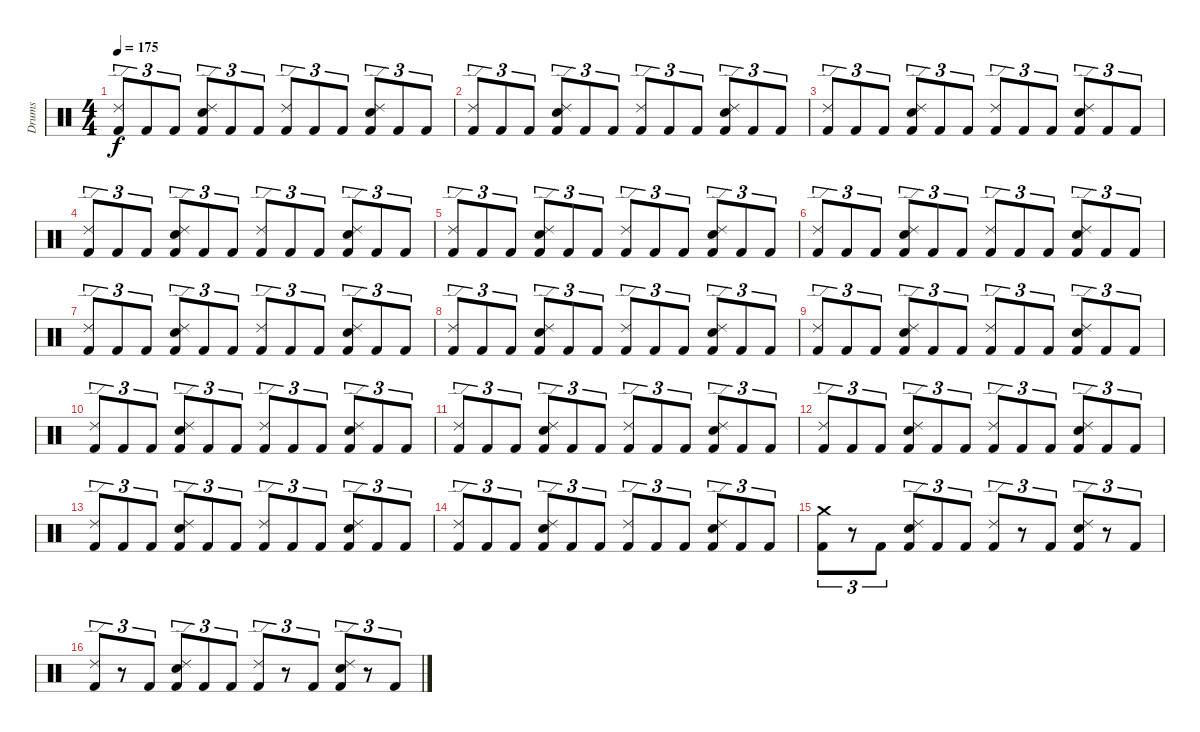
\track ("Drums" "Drums") {instrument percussion}
\staff {score}
\articulation defaults
\ts (4 4)
\tempo 175
\clef neutral
\ks c
("Ride (edge) 2" "Kick (hit) 2").8{tu (3 2) dy f} "Kick (hit) 2".8{tu (3 2)} "Kick (hit) 2".8{tu (3 2)} ("Electric Snare (hit)" "Ride (edge) 2" "Kick (hit) 2").8{tu (3 2)} "Kick (hit) 2".8{tu (3 2)} "Kick (hit) 2".8{tu (3 2)} ("Ride (edge) 2" "Kick (hit) 2").8{tu (3 2)} "Kick (hit) 2".8{tu (3 2)} "Kick (hit) 2".8{tu (3 2)} ("Electric Snare (hit)" "Ride (edge) 2" "Kick (hit) 2").8{tu (3 2)} "Kick (hit) 2".8{tu (3 2)} "Kick (hit) 2".8{tu (3 2)} |
("Ride (edge) 2" "Kick (hit) 2").8{tu (3 2)} "Kick (hit) 2".8{tu (3 2)} "Kick (hit) 2".8{tu (3 2)} ("Electric Snare (hit)" "Ride (edge) 2" "Kick (hit) 2").8{tu (3 2)} "Kick (hit) 2".8{tu (3 2)} "Kick (hit) 2".8{tu (3 2)} ("Ride (edge) 2" "Kick (hit) 2").8{tu (3 2)} "Kick (hit) 2".8{tu (3 2)} "Kick (hit) 2".8{tu (3 2)} ("Electric Snare (hit)" "Ride (edge) 2" "Kick (hit) 2").8{tu (3 2)} "Kick (hit) 2".8{tu (3 2)} "Kick (hit) 2".8{tu (3 2)} |
("Ride (edge) 2" "Kick (hit) 2").8{tu (3 2)} "Kick (hit) 2".8{tu (3 2)} "Kick (hit) 2".8{tu (3 2)} ("Electric Snare (hit)" "Ride (edge) 2" "Kick (hit) 2").8{tu (3 2)} "Kick (hit) 2".8{tu (3 2)} "Kick (hit) 2".8{tu (3 2)} ("Ride (edge) 2" "Kick (hit) 2").8{tu (3 2)} "Kick (hit) 2".8{tu (3 2)} "Kick (hit) 2".8{tu (3 2)} ("Electric Snare (hit)" "Ride (edge) 2" "Kick (hit) 2").8{tu (3 2)} "Kick (hit) 2".8{tu (3 2)} "Kick (hit) 2".8{tu (3 2)} |
("Ride (edge) 2" "Kick (hit) 2").8{tu (3 2)} "Kick (hit) 2".8{tu (3 2)} "Kick (hit) 2".8{tu (3 2)} ("Electric Snare (hit)" "Ride (edge) 2" "Kick (hit) 2").8{tu (3 2)} "Kick (hit) 2".8{tu (3 2)} "Kick (hit) 2".8{tu (3 2)} ("Ride (edge) 2" "Kick (hit) 2").8{tu (3 2)} "Kick (hit) 2".8{tu (3 2)} "Kick (hit) 2".8{tu (3 2)} ("Electric Snare (hit)" "Ride (edge) 2" "Kick (hit) 2").8{tu (3 2)} "Kick (hit) 2".8{tu (3 2)} "Kick (hit) 2".8{tu (3 2)} |
("Ride (edge) 2" "Kick (hit) 2").8{tu (3 2)} "Kick (hit) 2".8{tu (3 2)} "Kick (hit) 2".8{tu (3 2)} ("Electric Snare (hit)" "Ride (edge) 2" "Kick (hit) 2").8{tu (3 2)} "Kick (hit) 2".8{tu (3 2)} "Kick (hit) 2".8{tu (3 2)} ("Ride (edge) 2" "Kick (hit) 2").8{tu (3 2)} "Kick (hit) 2".8{tu (3 2)} "Kick (hit) 2".8{tu (3 2)} ("Electric Snare (hit)" "Ride (edge) 2" "Kick (hit) 2").8{tu (3 2)} "Kick (hit) 2".8{tu (3 2)} "Kick (hit) 2".8{tu (3 2)} |
("Ride (edge) 2" "Kick (hit) 2").8{tu (3 2)} "Kick (hit) 2".8{tu (3 2)} "Kick (hit) 2".8{tu (3 2)} ("Electric Snare (hit)" "Ride (edge) 2" "Kick (hit) 2").8{tu (3 2)} "Kick (hit) 2".8{tu (3 2)} "Kick (hit) 2".8{tu (3 2)} ("Ride (edge) 2" "Kick (hit) 2").8{tu (3 2)} "Kick (hit) 2".8{tu (3 2)} "Kick (hit) 2".8{tu (3 2)} ("Electric Snare (hit)" "Ride (edge) 2" "Kick (hit) 2").8{tu (3 2)} "Kick (hit) 2".8{tu (3 2)} "Kick (hit) 2".8{tu (3 2)} |
("Ride (edge) 2" "Kick (hit) 2").8{tu (3 2)} "Kick (hit) 2".8{tu (3 2)} "Kick (hit) 2".8{tu (3 2)} ("Electric Snare (hit)" "Ride (edge) 2" "Kick (hit) 2").8{tu (3 2)} "Kick (hit) 2".8{tu (3 2)} "Kick (hit) 2".8{tu (3 2)} ("Ride (edge) 2" "Kick (hit) 2").8{tu (3 2)} "Kick (hit) 2".8{tu (3 2)} "Kick (hit) 2".8{tu (3 2)} ("Electric Snare (hit)" "Ride (edge) 2" "Kick (hit) 2").8{tu (3 2)} "Kick (hit) 2".8{tu (3 2)} "Kick (hit) 2".8{tu (3 2)} |
("Ride (edge) 2" "Kick (hit) 2").8{tu (3 2)} "Kick (hit) 2".8{tu (3 2)} "Kick (hit) 2".8{tu (3 2)} ("Electric Snare (hit)" "Ride (edge) 2" "Kick (hit) 2").8{tu (3 2)} "Kick (hit) 2".8{tu (3 2)} "Kick (hit) 2".8{tu (3 2)} ("Ride (edge) 2" "Kick (hit) 2").8{tu (3 2)} "Kick (hit) 2".8{tu (3 2)} "Kick (hit) 2".8{tu (3 2)} ("Electric Snare (hit)" "Ride (edge) 2" "Kick (hit) 2").8{tu (3 2)} "Kick (hit) 2".8{tu (3 2)} "Kick (hit) 2".8{tu (3 2)} |
("Ride (edge) 2" "Kick (hit) 2").8{tu (3 2)} "Kick (hit) 2".8{tu (3 2)} "Kick (hit) 2".8{tu (3 2)} ("Electric Snare (hit)" "Ride (edge) 2" "Kick (hit) 2").8{tu (3 2)} "Kick (hit) 2".8{tu (3 2)} "Kick (hit) 2".8{tu (3 2)} ("Ride (edge) 2" "Kick (hit) 2").8{tu (3 2)} "Kick (hit) 2".8{tu (3 2)} "Kick (hit) 2".8{tu (3 2)} ("Electric Snare (hit)" "Ride (edge) 2" "Kick (hit) 2").8{tu (3 2)} "Kick (hit) 2".8{tu (3 2)} "Kick (hit) 2".8{tu (3 2)} |
("Ride (edge) 2" "Kick (hit) 2").8{tu (3 2)} "Kick (hit) 2".8{tu (3 2)} "Kick (hit) 2".8{tu (3 2)} ("Electric Snare (hit)" "Ride (edge) 2" "Kick (hit) 2").8{tu (3 2)} "Kick (hit) 2".8{tu (3 2)} "Kick (hit) 2".8{tu (3 2)} ("Ride (edge) 2" "Kick (hit) 2").8{tu (3 2)} "Kick (hit) 2".8{tu (3 2)} "Kick (hit) 2".8{tu (3 2)} ("Electric Snare (hit)" "Ride (edge) 2" "Kick (hit) 2").8{tu (3 2)} "Kick (hit) 2".8{tu (3 2)} "Kick (hit) 2".8{tu (3 2)} |
("Ride (edge) 2" "Kick (hit) 2").8{tu (3 2)} "Kick (hit) 2".8{tu (3 2)} "Kick (hit) 2".8{tu (3 2)} ("Electric Snare (hit)" "Ride (edge) 2" "Kick (hit) 2").8{tu (3 2)} "Kick (hit) 2".8{tu (3 2)} "Kick (hit) 2".8{tu (3 2)} ("Ride (edge) 2" "Kick (hit) 2").8{tu (3 2)} "Kick (hit) 2".8{tu (3 2)} "Kick (hit) 2".8{tu (3 2)} ("Electric Snare (hit)" "Ride (edge) 2" "Kick (hit) 2").8{tu (3 2)} "Kick (hit) 2".8{tu (3 2)} "Kick (hit) 2".8{tu (3 2)} |
("Ride (edge) 2" "Kick (hit) 2").8{tu (3 2)} "Kick (hit) 2".8{tu (3 2)} "Kick (hit) 2".8{tu (3 2)} ("Electric Snare (hit)" "Ride (edge) 2" "Kick (hit) 2").8{tu (3 2)} "Kick (hit) 2".8{tu (3 2)} "Kick (hit) 2".8{tu (3 2)} ("Ride (edge) 2" "Kick (hit) 2").8{tu (3 2)} "Kick (hit) 2".8{tu (3 2)} "Kick (hit) 2".8{tu (3 2)} ("Electric Snare (hit)" "Ride (edge) 2" "Kick (hit) 2").8{tu (3 2)} "Kick (hit) 2".8{tu (3 2)} "Kick (hit) 2".8{tu (3 2)} |
("Ride (edge) 2" "Kick (hit) 2").8{tu (3 2)} "Kick (hit) 2".8{tu (3 2)} "Kick (hit) 2".8{tu (3 2)} ("Electric Snare (hit)" "Ride (edge) 2" "Kick (hit) 2").8{tu (3 2)} "Kick (hit) 2".8{tu (3 2)} "Kick (hit) 2".8{tu (3 2)} ("Ride (edge) 2" "Kick (hit) 2").8{tu (3 2)} "Kick (hit) 2".8{tu (3 2)} "Kick (hit) 2".8{tu (3 2)} ("Electric Snare (hit)" "Ride (edge) 2" "Kick (hit) 2").8{tu (3 2)} "Kick (hit) 2".8{tu (3 2)} "Kick (hit) 2".8{tu (3 2)} |
("Ride (edge) 2" "Kick (hit) 2").8{tu (3 2)} "Kick (hit) 2".8{tu (3 2)} "Kick (hit) 2".8{tu (3 2)} ("Electric Snare (hit)" "Ride (edge) 2" "Kick (hit) 2").8{tu (3 2)} "Kick (hit) 2".8{tu (3 2)} "Kick (hit) 2".8{tu (3 2)} ("Ride (edge) 2" "Kick (hit) 2").8{tu (3 2)} "Kick (hit) 2".8{tu (3 2)} "Kick (hit) 2".8{tu (3 2)} ("Electric Snare (hit)" "Ride (edge) 2" "Kick (hit) 2").8{tu (3 2)} "Kick (hit) 2".8{tu (3 2)} "Kick (hit) 2".8{tu (3 2)} |
("Crash medium (hit)" "Kick (hit) 2").8{tu (3 2)} r.8{tu (3 2)} "Kick (hit) 2".8{tu (3 2)} ("Ride (edge) 2" "Electric Snare (hit)" "Kick (hit) 2").8{tu (3 2)} "Kick (hit) 2".8{tu (3 2)} "Kick (hit) 2".8{tu (3 2)} ("Ride (edge) 2" "Kick (hit) 2").8{tu (3 2)} r.8{tu (3 2)} "Kick (hit) 2".8{tu (3 2)} ("Electric Snare (hit)" "Kick (hit) 2" "Ride (edge) 2").8{tu (3 2)} r.8{tu (3 2)} "Kick (hit) 2".8{tu (3 2)} |
("Ride (edge) 2" "Kick (hit) 2").8{tu (3 2)} r.8{tu (3 2)} "Kick (hit) 2".8{tu (3 2)} ("Ride (edge) 2" "Electric Snare (hit)" "Kick (hit) 2").8{tu (3 2)} "Kick (hit) 2".8{tu (3 2)} "Kick (hit) 2".8{tu (3 2)} ("Ride (edge) 2" "Kick (hit) 2").8{tu (3 2)} r.8{tu (3 2)} "Kick (hit) 2".8{tu (3 2)} ("Electric Snare (hit)" "Kick (hit) 2" "Ride (edge) 2").8{tu (3 2)} r.8{tu (3 2)} "Kick (hit) 2".8{tu (3 2)}
